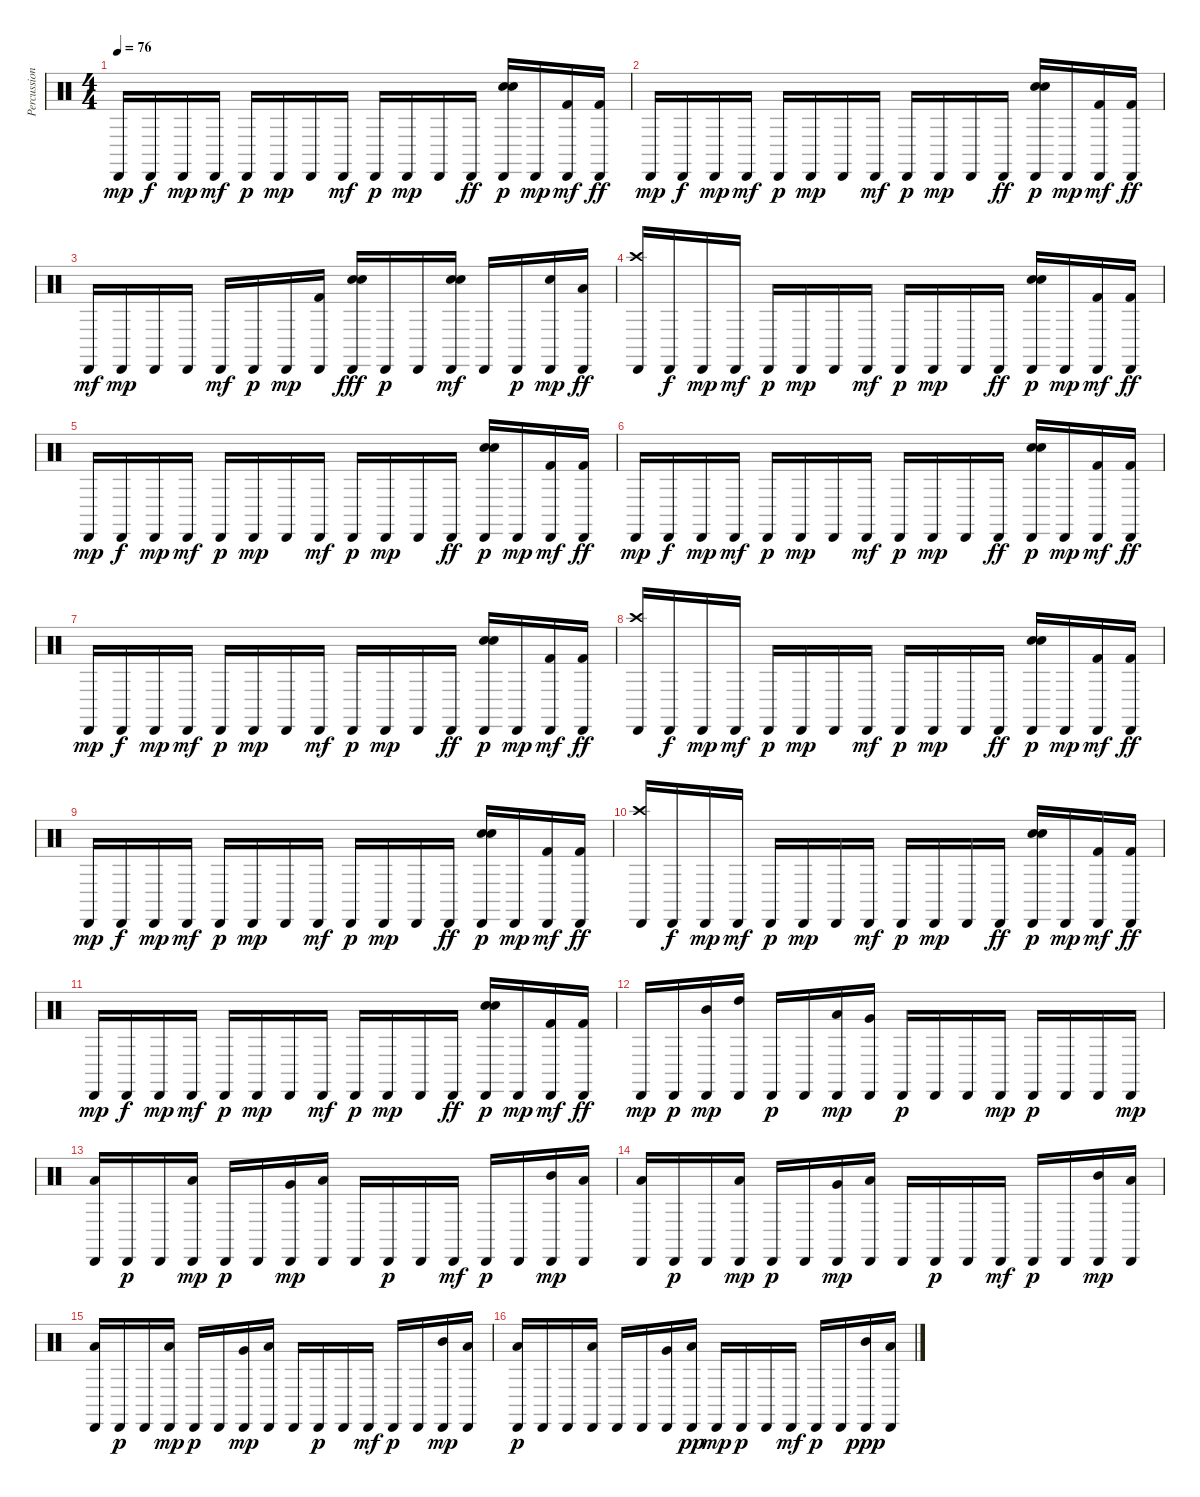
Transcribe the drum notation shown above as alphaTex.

\track ("Percussions" "Percussion") {instrument percussion}
\staff {score}
\articulation defaults
\ts (4 4)
\tempo 76
\clef neutral
\ks c "Cabasa (hit)".16{dy mp} "Cabasa (hit)".16{dy f} "Cabasa (hit)".16{dy mp} "Cabasa (hit)".16{dy mf} "Cabasa (hit)".16{dy p} "Cabasa (hit)".16{dy mp} "Cabasa (hit)".16 "Cabasa (hit)".16{dy mf} "Cabasa (hit)".16{dy p} "Cabasa (hit)".16{dy mp} "Cabasa (hit)".16 "Cabasa (hit)".16{dy ff}
("Cabasa (hit)" "Electric Snare (hit)" "Snare (hit) 2").16{dy p} "Cabasa (hit)".16{dy mp} ("Cabasa (hit)" "Kick (hit) 2").16{dy mf} ("Cabasa (hit)" "Kick (hit) 2").16{dy ff} |
"Cabasa (hit)".16{dy mp} "Cabasa (hit)".16{dy f} "Cabasa (hit)".16{dy mp} "Cabasa (hit)".16{dy mf} "Cabasa (hit)".16{dy p} "Cabasa (hit)".16{dy mp} "Cabasa (hit)".16 "Cabasa (hit)".16{dy mf} "Cabasa (hit)".16{dy p} "Cabasa (hit)".16{dy mp} "Cabasa (hit)".16 "Cabasa (hit)".16{dy ff} ("Cabasa (hit)" "Electric Snare (hit)" "Snare (hit) 2").16{dy p} "Cabasa (hit)".16{dy mp} ("Cabasa (hit)" "Kick (hit) 2").16{dy mf} ("Cabasa (hit)" "Kick (hit) 2").16{dy ff} |
"Cabasa (hit)".16{dy mf} "Cabasa (hit)".16{dy mp} "Cabasa (hit)".16 "Cabasa (hit)".16 "Cabasa (hit)".16{dy mf} "Cabasa (hit)".16{dy p} "Cabasa (hit)".16{dy mp} ("Cabasa (hit)" "Kick (hit) 2").16 ("Cabasa (hit)" "Electric Snare (hit)" "Snare (hit) 2").16{dy fff} "Cabasa (hit)".16{dy p} "Cabasa (hit)".16 ("Cabasa (hit)" "Electric Snare (hit)" "Snare (hit) 2").16{dy mf} "Cabasa (hit)".16 "Cabasa (hit)".16{dy p} ("Cabasa (hit)" "Electric Snare (hit)").16{dy mp} ("Cabasa (hit)" "Low Floor Tom (hit)").16{dy ff} |
("Cabasa (hit)" "Crash high (hit)").16 "Cabasa (hit)".16{dy f} "Cabasa (hit)".16{dy mp} "Cabasa (hit)".16{dy mf} "Cabasa (hit)".16{dy p} "Cabasa (hit)".16{dy mp} "Cabasa (hit)".16 "Cabasa (hit)".16{dy mf} "Cabasa (hit)".16{dy p} "Cabasa (hit)".16{dy mp} "Cabasa (hit)".16 "Cabasa (hit)".16{dy ff} ("Cabasa (hit)" "Electric Snare (hit)" "Snare (hit) 2").16{dy p} "Cabasa (hit)".16{dy mp} ("Cabasa (hit)" "Kick (hit) 2").16{dy mf} ("Cabasa (hit)" "Kick (hit) 2").16{dy ff} |
"Cabasa (hit)".16{dy mp} "Cabasa (hit)".16{dy f} "Cabasa (hit)".16{dy mp} "Cabasa (hit)".16{dy mf} "Cabasa (hit)".16{dy p} "Cabasa (hit)".16{dy mp} "Cabasa (hit)".16 "Cabasa (hit)".16{dy mf} "Cabasa (hit)".16{dy p} "Cabasa (hit)".16{dy mp} "Cabasa (hit)".16 "Cabasa (hit)".16{dy ff} ("Cabasa (hit)" "Electric Snare (hit)" "Snare (hit) 2").16{dy p} "Cabasa (hit)".16{dy mp} ("Cabasa (hit)" "Kick (hit) 2").16{dy mf} ("Cabasa (hit)" "Kick (hit) 2").16{dy ff} |
"Cabasa (hit)".16{dy mp} "Cabasa (hit)".16{dy f} "Cabasa (hit)".16{dy mp} "Cabasa (hit)".16{dy mf} "Cabasa (hit)".16{dy p} "Cabasa (hit)".16{dy mp} "Cabasa (hit)".16 "Cabasa (hit)".16{dy mf} "Cabasa (hit)".16{dy p} "Cabasa (hit)".16{dy mp} "Cabasa (hit)".16 "Cabasa (hit)".16{dy ff} ("Cabasa (hit)" "Electric Snare (hit)" "Snare (hit) 2").16{dy p} "Cabasa (hit)".16{dy mp} ("Cabasa (hit)" "Kick (hit) 2").16{dy mf} ("Cabasa (hit)" "Kick (hit) 2").16{dy ff} |
"Cabasa (hit)".16{dy mp} "Cabasa (hit)".16{dy f} "Cabasa (hit)".16{dy mp} "Cabasa (hit)".16{dy mf} "Cabasa (hit)".16{dy p} "Cabasa (hit)".16{dy mp} "Cabasa (hit)".16 "Cabasa (hit)".16{dy mf} "Cabasa (hit)".16{dy p} "Cabasa (hit)".16{dy mp} "Cabasa (hit)".16 "Cabasa (hit)".16{dy ff} ("Cabasa (hit)" "Electric Snare (hit)" "Snare (hit) 2").16{dy p} "Cabasa (hit)".16{dy mp} ("Cabasa (hit)" "Kick (hit) 2").16{dy mf} ("Cabasa (hit)" "Kick (hit) 2").16{dy ff} |
("Cabasa (hit)" "Crash high (hit)").16 "Cabasa (hit)".16{dy f} "Cabasa (hit)".16{dy mp} "Cabasa (hit)".16{dy mf} "Cabasa (hit)".16{dy p} "Cabasa (hit)".16{dy mp} "Cabasa (hit)".16 "Cabasa (hit)".16{dy mf} "Cabasa (hit)".16{dy p} "Cabasa (hit)".16{dy mp} "Cabasa (hit)".16 "Cabasa (hit)".16{dy ff} ("Cabasa (hit)" "Electric Snare (hit)" "Snare (hit) 2").16{dy p} "Cabasa (hit)".16{dy mp} ("Cabasa (hit)" "Kick (hit) 2").16{dy mf} ("Cabasa (hit)" "Kick (hit) 2").16{dy ff} |
"Cabasa (hit)".16{dy mp} "Cabasa (hit)".16{dy f} "Cabasa (hit)".16{dy mp} "Cabasa (hit)".16{dy mf} "Cabasa (hit)".16{dy p} "Cabasa (hit)".16{dy mp} "Cabasa (hit)".16 "Cabasa (hit)".16{dy mf} "Cabasa (hit)".16{dy p} "Cabasa (hit)".16{dy mp} "Cabasa (hit)".16 "Cabasa (hit)".16{dy ff} ("Cabasa (hit)" "Electric Snare (hit)" "Snare (hit) 2").16{dy p} "Cabasa (hit)".16{dy mp} ("Cabasa (hit)" "Kick (hit) 2").16{dy mf} ("Cabasa (hit)" "Kick (hit) 2").16{dy ff} |
("Cabasa (hit)" "Crash high (hit)").16 "Cabasa (hit)".16{dy f} "Cabasa (hit)".16{dy mp} "Cabasa (hit)".16{dy mf} "Cabasa (hit)".16{dy p} "Cabasa (hit)".16{dy mp} "Cabasa (hit)".16 "Cabasa (hit)".16{dy mf} "Cabasa (hit)".16{dy p} "Cabasa (hit)".16{dy mp} "Cabasa (hit)".16 "Cabasa (hit)".16{dy ff} ("Cabasa (hit)" "Electric Snare (hit)" "Snare (hit) 2").16{dy p} "Cabasa (hit)".16{dy mp} ("Cabasa (hit)" "Kick (hit) 2").16{dy mf} ("Cabasa (hit)" "Kick (hit) 2").16{dy ff} |
"Cabasa (hit)".16{dy mp} "Cabasa (hit)".16{dy f} "Cabasa (hit)".16{dy mp} "Cabasa (hit)".16{dy mf} "Cabasa (hit)".16{dy p} "Cabasa (hit)".16{dy mp} "Cabasa (hit)".16 "Cabasa (hit)".16{dy mf} "Cabasa (hit)".16{dy p} "Cabasa (hit)".16{dy mp} "Cabasa (hit)".16 "Cabasa (hit)".16{dy ff} ("Cabasa (hit)" "Electric Snare (hit)" "Snare (hit) 2").16{dy p} "Cabasa (hit)".16{dy mp} ("Cabasa (hit)" "Kick (hit) 2").16{dy mf} ("Cabasa (hit)" "Kick (hit) 2").16{dy ff} |
"Cabasa (hit)".16{dy mp} "Cabasa (hit)".16{dy p} ("Cabasa (hit)" "Mid Tom (hit)").16{dy mp} ("Cabasa (hit)" "High Tom (hit)").16 "Cabasa (hit)".16{dy p} "Cabasa (hit)".16 ("Cabasa (hit)" "Low Tom (hit)").16{dy mp} ("Cabasa (hit)" "Very Low Tom (hit)").16 "Cabasa (hit)".16{dy p} "Cabasa (hit)".16 "Cabasa (hit)".16 "Cabasa (hit)".16{dy mp} "Cabasa (hit)".16{dy p} "Cabasa (hit)".16 "Cabasa (hit)".16 "Cabasa (hit)".16{dy mp} |
("Cabasa (hit)" "Low Floor Tom (hit)").16{volume 0} "Cabasa (hit)".16{dy p} "Cabasa (hit)".16 ("Cabasa (hit)" "Low Tom (hit)").16{dy mp} "Cabasa (hit)".16{dy p} "Cabasa (hit)".16 ("Cabasa (hit)" "Very Low Tom (hit)").16{dy mp} ("Cabasa (hit)" "Low Floor Tom (hit)").16 "Cabasa (hit)".16 "Cabasa (hit)".16{dy p} "Cabasa (hit)".16 "Cabasa (hit)".16{dy mf} "Cabasa (hit)".16{dy p} "Cabasa (hit)".16 ("Cabasa (hit)" "Mid Tom (hit)").16{dy mp} ("Cabasa (hit)" "Low Floor Tom (hit)").16 |
("Cabasa (hit)" "Low Floor Tom (hit)").16 "Cabasa (hit)".16{dy p} "Cabasa (hit)".16 ("Cabasa (hit)" "Low Tom (hit)").16{dy mp} "Cabasa (hit)".16{dy p} "Cabasa (hit)".16 ("Cabasa (hit)" "Very Low Tom (hit)").16{dy mp} ("Cabasa (hit)" "Low Floor Tom (hit)").16 "Cabasa (hit)".16 "Cabasa (hit)".16{dy p} "Cabasa (hit)".16 "Cabasa (hit)".16{dy mf} "Cabasa (hit)".16{dy p} "Cabasa (hit)".16 ("Cabasa (hit)" "Mid Tom (hit)").16{dy mp} ("Cabasa (hit)" "Low Floor Tom (hit)").16 |
("Cabasa (hit)" "Low Floor Tom (hit)").16 "Cabasa (hit)".16{dy p} "Cabasa (hit)".16 ("Cabasa (hit)" "Low Tom (hit)").16{dy mp} "Cabasa (hit)".16{dy p} "Cabasa (hit)".16 ("Cabasa (hit)" "Very Low Tom (hit)").16{dy mp} ("Cabasa (hit)" "Low Floor Tom (hit)").16 "Cabasa (hit)".16 "Cabasa (hit)".16{dy p} "Cabasa (hit)".16 "Cabasa (hit)".16{dy mf} "Cabasa (hit)".16{dy p} "Cabasa (hit)".16 ("Cabasa (hit)" "Mid Tom (hit)").16{dy mp} ("Cabasa (hit)" "Low Floor Tom (hit)").16 |
("Cabasa (hit)" "Low Floor Tom (hit)").16{dy p} "Cabasa (hit)".16 "Cabasa (hit)".16 ("Cabasa (hit)" "Low Tom (hit)").16 "Cabasa (hit)".16 "Cabasa (hit)".16 ("Cabasa (hit)" "Very Low Tom (hit)").16 ("Cabasa (hit)" "Low Floor Tom (hit)").16{dy pp} "Cabasa (hit)".16{dy mp} "Cabasa (hit)".16{dy p} "Cabasa (hit)".16 "Cabasa (hit)".16{dy mf} "Cabasa (hit)".16{dy p} "Cabasa (hit)".16 ("Cabasa (hit)" "Mid Tom (hit)").16{dy ppp} ("Cabasa (hit)" "Low Floor Tom (hit)").16
